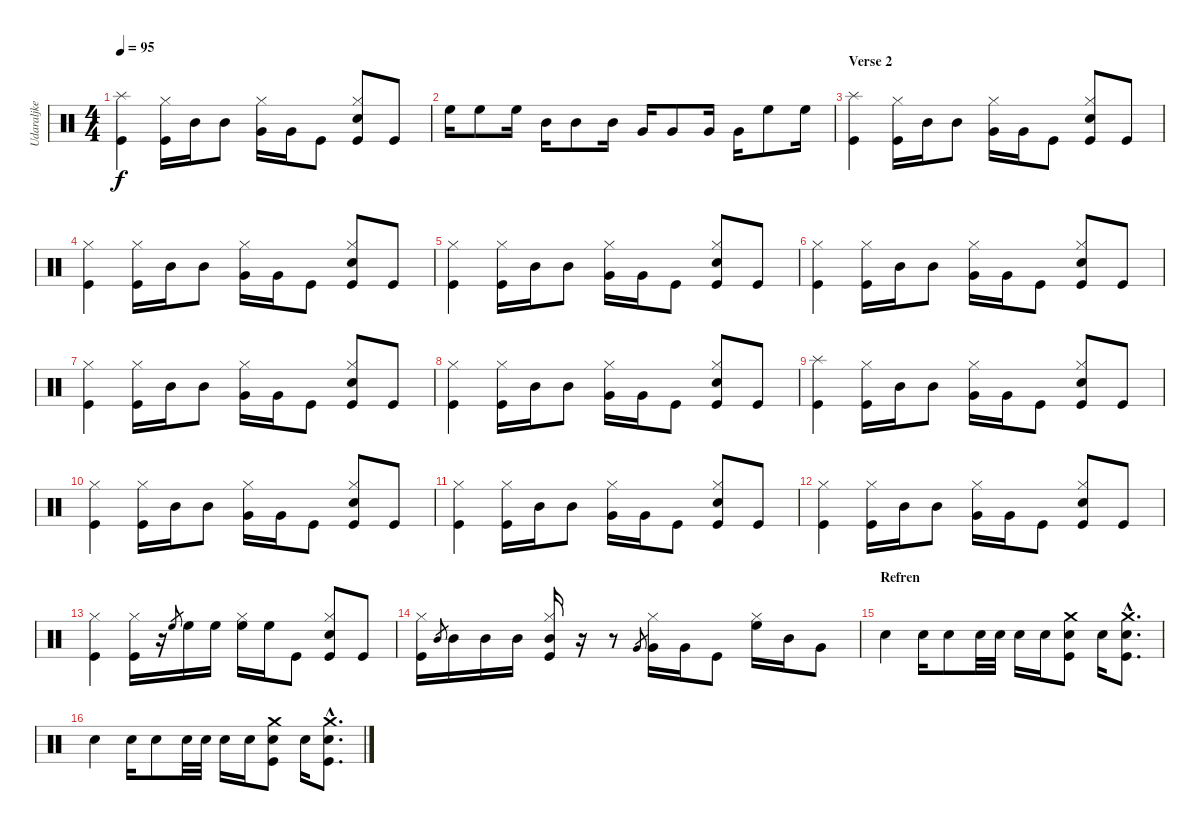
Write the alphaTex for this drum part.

\track ("Udaraljke" "Udaraljke") {instrument percussion}
\staff {score}
\articulation defaults
\ts (4 4)
\tempo 95
\clef neutral
\ks c
("Splash (hit)" "Kick (hit)").4{dy f} ("Hi-Hat (closed)" "Kick (hit)").16 "Mid Tom (hit)".16 "Mid Tom (hit)".8 ("Hi-Hat (closed)" "Very Low Tom (hit)").16 "Very Low Tom (hit)".16 "Kick (hit)".8 ("Hi-Hat (closed)" "Snare (hit) 2" "Kick (hit)").8 "Kick (hit)".8 |
"High Floor Tom (hit)".16 "High Floor Tom (hit)".8 "High Floor Tom (hit)".16 "Mid Tom (hit)".16 "Mid Tom (hit)".8 "Mid Tom (hit)".16 "Very Low Tom (hit)".16 "Very Low Tom (hit)".8 "Very Low Tom (hit)".16 "Very Low Tom (hit)".16 "High Floor Tom (hit)".8 "High Floor Tom (hit)".16 |
\section ("" "Verse 2")
("Splash (hit)" "Kick (hit)").4 ("Hi-Hat (closed)" "Kick (hit)").16 "Mid Tom (hit)".16 "Mid Tom (hit)".8 ("Hi-Hat (closed)" "Very Low Tom (hit)").16 "Very Low Tom (hit)".16 "Kick (hit)".8 ("Hi-Hat (closed)" "Snare (hit) 2" "Kick (hit)").8 "Kick (hit)".8 |
("Hi-Hat (closed)" "Kick (hit)").4 ("Hi-Hat (closed)" "Kick (hit)").16 "Mid Tom (hit)".16 "Mid Tom (hit)".8 ("Hi-Hat (closed)" "Very Low Tom (hit)").16 "Very Low Tom (hit)".16 "Kick (hit)".8 ("Hi-Hat (closed)" "Snare (hit) 2" "Kick (hit)").8 "Kick (hit)".8 |
("Hi-Hat (closed)" "Kick (hit)").4 ("Hi-Hat (closed)" "Kick (hit)").16 "Mid Tom (hit)".16 "Mid Tom (hit)".8 ("Hi-Hat (closed)" "Very Low Tom (hit)").16 "Very Low Tom (hit)".16 "Kick (hit)".8 ("Hi-Hat (closed)" "Snare (hit) 2" "Kick (hit)").8 "Kick (hit)".8 |
("Hi-Hat (closed)" "Kick (hit)").4 ("Hi-Hat (closed)" "Kick (hit)").16 "Mid Tom (hit)".16 "Mid Tom (hit)".8 ("Hi-Hat (closed)" "Very Low Tom (hit)").16 "Very Low Tom (hit)".16 "Kick (hit)".8 ("Hi-Hat (closed)" "Snare (hit) 2" "Kick (hit)").8 "Kick (hit)".8 |
("Hi-Hat (closed)" "Kick (hit)").4 ("Hi-Hat (closed)" "Kick (hit)").16 "Mid Tom (hit)".16 "Mid Tom (hit)".8 ("Hi-Hat (closed)" "Very Low Tom (hit)").16 "Very Low Tom (hit)".16 "Kick (hit)".8 ("Hi-Hat (closed)" "Snare (hit) 2" "Kick (hit)").8 "Kick (hit)".8 |
("Hi-Hat (closed)" "Kick (hit)").4 ("Hi-Hat (closed)" "Kick (hit)").16 "Mid Tom (hit)".16 "Mid Tom (hit)".8 ("Hi-Hat (closed)" "Very Low Tom (hit)").16 "Very Low Tom (hit)".16 "Kick (hit)".8 ("Hi-Hat (closed)" "Snare (hit) 2" "Kick (hit)").8 "Kick (hit)".8 |
("Splash (hit)" "Kick (hit)").4 ("Hi-Hat (closed)" "Kick (hit)").16 "Mid Tom (hit)".16 "Mid Tom (hit)".8 ("Hi-Hat (closed)" "Very Low Tom (hit)").16 "Very Low Tom (hit)".16 "Kick (hit)".8 ("Hi-Hat (closed)" "Snare (hit) 2" "Kick (hit)").8 "Kick (hit)".8 |
("Hi-Hat (closed)" "Kick (hit)").4 ("Hi-Hat (closed)" "Kick (hit)").16 "Mid Tom (hit)".16 "Mid Tom (hit)".8 ("Hi-Hat (closed)" "Very Low Tom (hit)").16 "Very Low Tom (hit)".16 "Kick (hit)".8 ("Hi-Hat (closed)" "Snare (hit) 2" "Kick (hit)").8 "Kick (hit)".8 |
("Hi-Hat (closed)" "Kick (hit)").4 ("Hi-Hat (closed)" "Kick (hit)").16 "Mid Tom (hit)".16 "Mid Tom (hit)".8 ("Hi-Hat (closed)" "Very Low Tom (hit)").16 "Very Low Tom (hit)".16 "Kick (hit)".8 ("Hi-Hat (closed)" "Snare (hit) 2" "Kick (hit)").8 "Kick (hit)".8 |
("Hi-Hat (closed)" "Kick (hit)").4 ("Hi-Hat (closed)" "Kick (hit)").16 "Mid Tom (hit)".16 "Mid Tom (hit)".8 ("Hi-Hat (closed)" "Very Low Tom (hit)").16 "Very Low Tom (hit)".16 "Kick (hit)".8 ("Hi-Hat (closed)" "Snare (hit) 2" "Kick (hit)").8 "Kick (hit)".8 |
("Hi-Hat (closed)" "Kick (hit)").4 ("Hi-Hat (closed)" "Kick (hit)").16 r.16 "High Floor Tom (hit)".8{gr} "High Floor Tom (hit)".16 "High Floor Tom (hit)".16 ("Hi-Hat (closed)" "High Floor Tom (hit)").16 "High Floor Tom (hit)".16 "Kick (hit)".8 ("Hi-Hat (closed)" "Snare (hit) 2" "Kick (hit)").8 "Kick (hit)".8 |
("Hi-Hat (closed)" "Kick (hit)").16 "Mid Tom (hit)".8{gr} "Mid Tom (hit)".16 "Mid Tom (hit)".16 "Mid Tom (hit)".16 ("Hi-Hat (closed)" "Mid Tom (hit)" "Kick (hit)").16 r.16 r.8 "Very Low Tom (hit)".8{gr} ("Hi-Hat (closed)" "Very Low Tom (hit)").16 "Very Low Tom (hit)".16 "Kick (hit)".8 ("Hi-Hat (closed)" "High Floor Tom (hit)").16 "Mid Tom (hit)".16 "Very Low Tom (hit)".8 |
\section ("" "Refren")
"Snare (hit) 2".4 "Snare (hit) 2".16 "Snare (hit) 2".8 "Snare (hit) 2".32 "Snare (hit) 2".32 "Snare (hit) 2".16 "Snare (hit) 2".16 ("Crash medium (hit)" "Snare (hit) 2" "Kick (hit)").8 "Snare (hit) 2".16 ("Crash medium (hit)"{hac} "Snare (hit) 2"{hac} "Kick (hit)"{hac}).8{d} |
"Snare (hit) 2".4 "Snare (hit) 2".16 "Snare (hit) 2".8 "Snare (hit) 2".32 "Snare (hit) 2".32 "Snare (hit) 2".16 "Snare (hit) 2".16 ("Crash medium (hit)" "Snare (hit) 2" "Kick (hit)").8 "Snare (hit) 2".16 ("Crash medium (hit)"{hac} "Snare (hit) 2"{hac} "Kick (hit)"{hac}).8{d}
